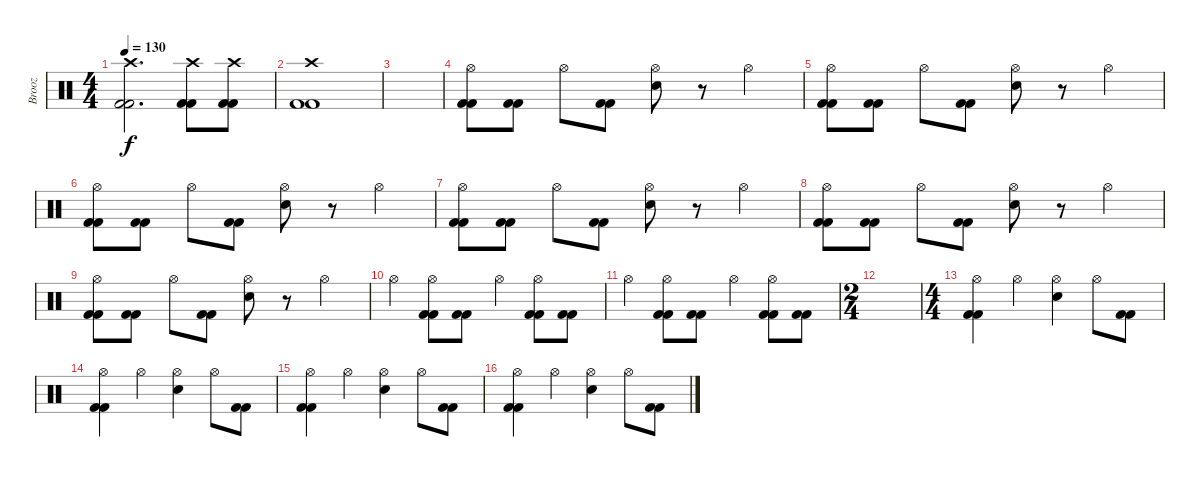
\track ("Brooz" "Brooz") {instrument percussion}
\staff {score}
\articulation defaults
\ts (4 4)
\tempo 130
\clef neutral
\ks c
("Crash high (hit)" "Kick (hit) 2" "Kick (hit) 2").2{d dy f} ("Crash high (hit)" "Kick (hit) 2" "Kick (hit) 2").8 ("Crash high (hit)" "Kick (hit) 2" "Kick (hit) 2").8 |
("Crash high (hit)" "Kick (hit) 2" "Kick (hit) 2").1 |
|
("Hi-Hat (open)" "Kick (hit) 2" "Kick (hit) 2").8 ("Kick (hit) 2" "Kick (hit) 2").8 "Hi-Hat (open)".8 ("Kick (hit) 2" "Kick (hit) 2").8 ("Hi-Hat (open)" "Snare (hit) 2").8 r.8 "Hi-Hat (open)".4 |
("Hi-Hat (open)" "Kick (hit) 2" "Kick (hit) 2").8 ("Kick (hit) 2" "Kick (hit) 2").8 "Hi-Hat (open)".8 ("Kick (hit) 2" "Kick (hit) 2").8 ("Hi-Hat (open)" "Snare (hit) 2").8 r.8 "Hi-Hat (open)".4 |
("Hi-Hat (open)" "Kick (hit) 2" "Kick (hit) 2").8 ("Kick (hit) 2" "Kick (hit) 2").8 "Hi-Hat (open)".8 ("Kick (hit) 2" "Kick (hit) 2").8 ("Hi-Hat (open)" "Snare (hit) 2").8 r.8 "Hi-Hat (open)".4 |
("Hi-Hat (open)" "Kick (hit) 2" "Kick (hit) 2").8 ("Kick (hit) 2" "Kick (hit) 2").8 "Hi-Hat (open)".8 ("Kick (hit) 2" "Kick (hit) 2").8 ("Hi-Hat (open)" "Snare (hit) 2").8 r.8 "Hi-Hat (open)".4 |
("Hi-Hat (open)" "Kick (hit) 2" "Kick (hit) 2").8 ("Kick (hit) 2" "Kick (hit) 2").8 "Hi-Hat (open)".8 ("Kick (hit) 2" "Kick (hit) 2").8 ("Hi-Hat (open)" "Snare (hit) 2").8 r.8 "Hi-Hat (open)".4 |
("Hi-Hat (open)" "Kick (hit) 2" "Kick (hit) 2").8 ("Kick (hit) 2" "Kick (hit) 2").8 "Hi-Hat (open)".8 ("Kick (hit) 2" "Kick (hit) 2").8 ("Hi-Hat (open)" "Snare (hit) 2").8 r.8 "Hi-Hat (open)".4 |
"Hi-Hat (open)".4 ("Hi-Hat (open)" "Kick (hit) 2" "Kick (hit) 2").8 ("Kick (hit) 2" "Kick (hit) 2").8 "Hi-Hat (open)".4 ("Hi-Hat (open)" "Kick (hit) 2" "Kick (hit) 2").8 ("Kick (hit) 2" "Kick (hit) 2").8 |
"Hi-Hat (open)".4 ("Hi-Hat (open)" "Kick (hit) 2" "Kick (hit) 2").8 ("Kick (hit) 2" "Kick (hit) 2").8 "Hi-Hat (open)".4 ("Hi-Hat (open)" "Kick (hit) 2" "Kick (hit) 2").8 ("Kick (hit) 2" "Kick (hit) 2").8 |
\ts (2 4)
|
\ts (4 4)
("Hi-Hat (open)" "Kick (hit) 2" "Kick (hit) 2").4 "Hi-Hat (open)".4 ("Hi-Hat (open)" "Snare (hit) 2").4 "Hi-Hat (open)".8 ("Kick (hit) 2" "Kick (hit) 2").8 |
("Hi-Hat (open)" "Kick (hit) 2" "Kick (hit) 2").4 "Hi-Hat (open)".4 ("Hi-Hat (open)" "Snare (hit) 2").4 "Hi-Hat (open)".8 ("Kick (hit) 2" "Kick (hit) 2").8 |
("Hi-Hat (open)" "Kick (hit) 2" "Kick (hit) 2").4 "Hi-Hat (open)".4 ("Hi-Hat (open)" "Snare (hit) 2").4 "Hi-Hat (open)".8 ("Kick (hit) 2" "Kick (hit) 2").8 |
("Hi-Hat (open)" "Kick (hit) 2" "Kick (hit) 2").4 "Hi-Hat (open)".4 ("Hi-Hat (open)" "Snare (hit) 2").4 "Hi-Hat (open)".8 ("Kick (hit) 2" "Kick (hit) 2").8
